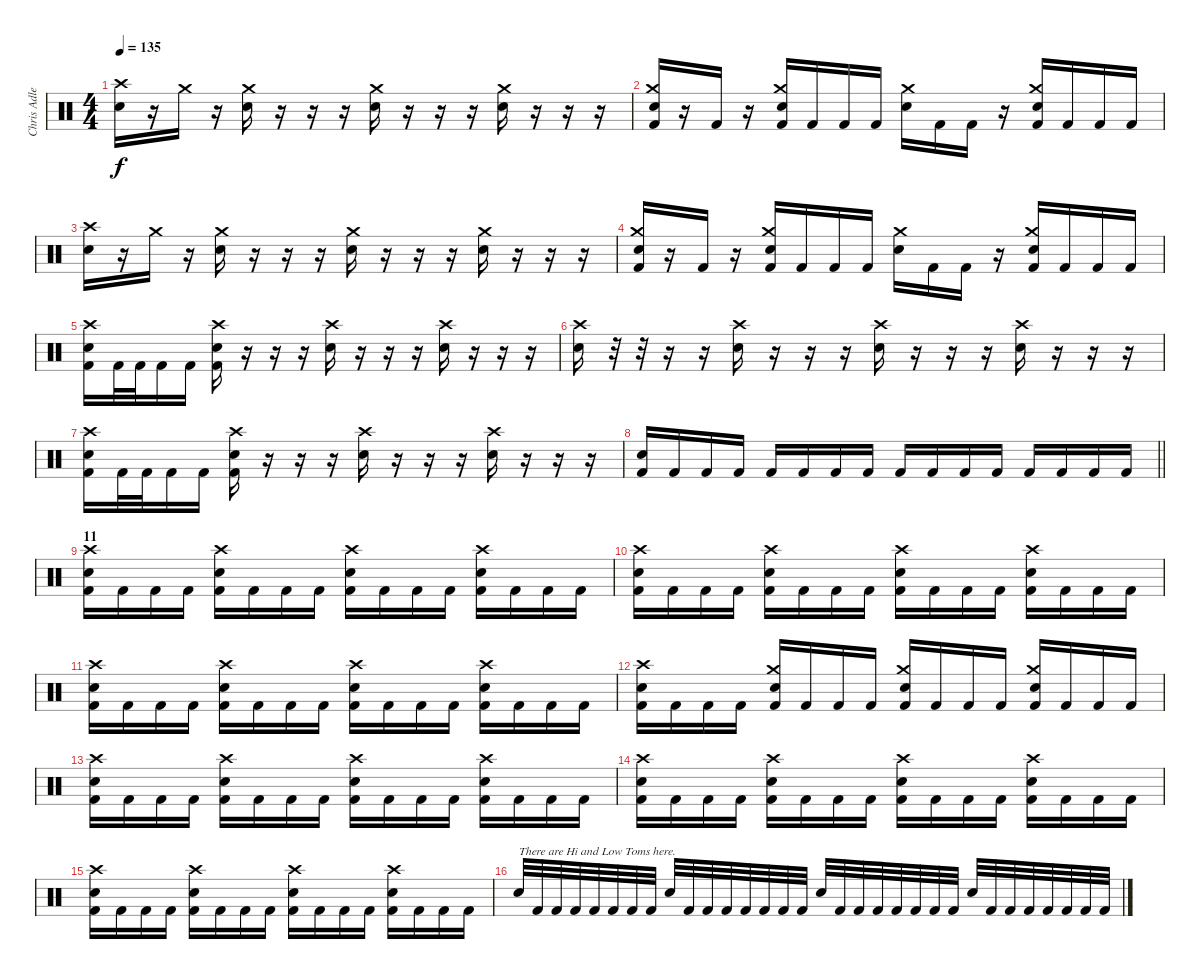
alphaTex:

\track ("Chris Adler" "Chris Adle") {instrument percussion}
\staff {score}
\articulation defaults
\ts (4 4)
\tempo 135
\clef neutral
\ks c
("Crash high (hit)" "Electric Snare (hit)").16{dy f} r.16 "Crash medium (hit)".16 r.16 ("Crash medium (hit)" "Electric Snare (hit)").16 r.16 r.16 r.16 ("Crash medium (hit)" "Electric Snare (hit)").16 r.16 r.16 r.16 ("Crash medium (hit)" "Electric Snare (hit)").16 r.16 r.16 r.16 |
("Crash medium (hit)" "Electric Snare (hit)" "Kick (hit) 2").16 r.16 "Kick (hit) 2".16 r.16 ("Crash medium (hit)" "Electric Snare (hit)" "Kick (hit) 2").16 "Kick (hit) 2".16 "Kick (hit) 2".16 "Kick (hit) 2".16 ("Crash medium (hit)" "Electric Snare (hit)").16 "Kick (hit) 2".16 "Kick (hit) 2".16 r.16 ("Crash medium (hit)" "Electric Snare (hit)" "Kick (hit) 2").16 "Kick (hit) 2".16 "Kick (hit) 2".16 "Kick (hit) 2".16 |
("Crash high (hit)" "Electric Snare (hit)").16 r.16 "Crash medium (hit)".16 r.16 ("Crash medium (hit)" "Electric Snare (hit)").16 r.16 r.16 r.16 ("Crash medium (hit)" "Electric Snare (hit)").16 r.16 r.16 r.16 ("Crash medium (hit)" "Electric Snare (hit)").16 r.16 r.16 r.16 |
("Crash medium (hit)" "Electric Snare (hit)" "Kick (hit) 2").16 r.16 "Kick (hit) 2".16 r.16 ("Crash medium (hit)" "Electric Snare (hit)" "Kick (hit) 2").16 "Kick (hit) 2".16 "Kick (hit) 2".16 "Kick (hit) 2".16 ("Crash medium (hit)" "Electric Snare (hit)").16 "Kick (hit) 2".16 "Kick (hit) 2".16 r.16 ("Crash medium (hit)" "Electric Snare (hit)" "Kick (hit) 2").16 "Kick (hit) 2".16 "Kick (hit) 2".16 "Kick (hit) 2".16 |
("Crash high (hit)" "Electric Snare (hit)" "Kick (hit) 2").16 "Kick (hit) 2".32 "Kick (hit) 2".32 "Kick (hit) 2".16 "Kick (hit) 2".16 ("Crash high (hit)" "Electric Snare (hit)" "Kick (hit) 2").16 r.16 r.16 r.16 ("Crash high (hit)" "Electric Snare (hit)").16 r.16 r.16 r.16 ("Crash high (hit)" "Electric Snare (hit)").16 r.16 r.16 r.16 |
("Crash high (hit)" "Electric Snare (hit)").16 r.32 r.32 r.16 r.16 ("Crash high (hit)" "Electric Snare (hit)").16 r.16 r.16 r.16 ("Crash high (hit)" "Electric Snare (hit)").16 r.16 r.16 r.16 ("Crash high (hit)" "Electric Snare (hit)").16 r.16 r.16 r.16 |
("Crash high (hit)" "Electric Snare (hit)" "Kick (hit) 2").16 "Kick (hit) 2".32 "Kick (hit) 2".32 "Kick (hit) 2".16 "Kick (hit) 2".16 ("Crash high (hit)" "Electric Snare (hit)" "Kick (hit) 2").16 r.16 r.16 r.16 ("Crash high (hit)" "Electric Snare (hit)").16 r.16 r.16 r.16 ("Crash high (hit)" "Electric Snare (hit)").16 r.16 r.16 r.16 |
\barLineRight lightlight
("Electric Snare (hit)" "Kick (hit) 2").16 "Kick (hit) 2".16 "Kick (hit) 2".16 "Kick (hit) 2".16 "Kick (hit) 2".16 "Kick (hit) 2".16 "Kick (hit) 2".16 "Kick (hit) 2".16 "Kick (hit) 2".16 "Kick (hit) 2".16 "Kick (hit) 2".16 "Kick (hit) 2".16 "Kick (hit) 2".16 "Kick (hit) 2".16 "Kick (hit) 2".16 "Kick (hit) 2".16 |
\section ("" "11")
("Crash high (hit)" "Electric Snare (hit)" "Kick (hit) 2").16 "Kick (hit) 2".16 "Kick (hit) 2".16 "Kick (hit) 2".16 ("Crash high (hit)" "Electric Snare (hit)" "Kick (hit) 2").16 "Kick (hit) 2".16 "Kick (hit) 2".16 "Kick (hit) 2".16 ("Crash high (hit)" "Electric Snare (hit)" "Kick (hit) 2").16 "Kick (hit) 2".16 "Kick (hit) 2".16 "Kick (hit) 2".16 ("Crash high (hit)" "Electric Snare (hit)" "Kick (hit) 2").16 "Kick (hit) 2".16 "Kick (hit) 2".16 "Kick (hit) 2".16 |
("Crash high (hit)" "Electric Snare (hit)" "Kick (hit) 2").16 "Kick (hit) 2".16 "Kick (hit) 2".16 "Kick (hit) 2".16 ("Crash high (hit)" "Electric Snare (hit)" "Kick (hit) 2").16 "Kick (hit) 2".16 "Kick (hit) 2".16 "Kick (hit) 2".16 ("Crash high (hit)" "Electric Snare (hit)" "Kick (hit) 2").16 "Kick (hit) 2".16 "Kick (hit) 2".16 "Kick (hit) 2".16 ("Crash high (hit)" "Electric Snare (hit)" "Kick (hit) 2").16 "Kick (hit) 2".16 "Kick (hit) 2".16 "Kick (hit) 2".16 |
("Crash high (hit)" "Electric Snare (hit)" "Kick (hit) 2").16 "Kick (hit) 2".16 "Kick (hit) 2".16 "Kick (hit) 2".16 ("Crash high (hit)" "Electric Snare (hit)" "Kick (hit) 2").16 "Kick (hit) 2".16 "Kick (hit) 2".16 "Kick (hit) 2".16 ("Crash high (hit)" "Electric Snare (hit)" "Kick (hit) 2").16 "Kick (hit) 2".16 "Kick (hit) 2".16 "Kick (hit) 2".16 ("Crash high (hit)" "Electric Snare (hit)" "Kick (hit) 2").16 "Kick (hit) 2".16 "Kick (hit) 2".16 "Kick (hit) 2".16 |
("Crash high (hit)" "Electric Snare (hit)" "Kick (hit) 2").16 "Kick (hit) 2".16 "Kick (hit) 2".16 "Kick (hit) 2".16 ("Crash medium (hit)" "Electric Snare (hit)" "Kick (hit) 2").16 "Kick (hit) 2".16 "Kick (hit) 2".16 "Kick (hit) 2".16 ("Crash medium (hit)" "Electric Snare (hit)" "Kick (hit) 2").16 "Kick (hit) 2".16 "Kick (hit) 2".16 "Kick (hit) 2".16 ("Crash medium (hit)" "Electric Snare (hit)" "Kick (hit) 2").16 "Kick (hit) 2".16 "Kick (hit) 2".16 "Kick (hit) 2".16 |
("Crash high (hit)" "Electric Snare (hit)" "Kick (hit) 2").16 "Kick (hit) 2".16 "Kick (hit) 2".16 "Kick (hit) 2".16 ("Crash high (hit)" "Electric Snare (hit)" "Kick (hit) 2").16 "Kick (hit) 2".16 "Kick (hit) 2".16 "Kick (hit) 2".16 ("Crash high (hit)" "Electric Snare (hit)" "Kick (hit) 2").16 "Kick (hit) 2".16 "Kick (hit) 2".16 "Kick (hit) 2".16 ("Crash high (hit)" "Electric Snare (hit)" "Kick (hit) 2").16 "Kick (hit) 2".16 "Kick (hit) 2".16 "Kick (hit) 2".16 |
("Crash high (hit)" "Electric Snare (hit)" "Kick (hit) 2").16 "Kick (hit) 2".16 "Kick (hit) 2".16 "Kick (hit) 2".16 ("Crash high (hit)" "Electric Snare (hit)" "Kick (hit) 2").16 "Kick (hit) 2".16 "Kick (hit) 2".16 "Kick (hit) 2".16 ("Crash high (hit)" "Electric Snare (hit)" "Kick (hit) 2").16 "Kick (hit) 2".16 "Kick (hit) 2".16 "Kick (hit) 2".16 ("Crash high (hit)" "Electric Snare (hit)" "Kick (hit) 2").16 "Kick (hit) 2".16 "Kick (hit) 2".16 "Kick (hit) 2".16 |
("Crash high (hit)" "Electric Snare (hit)" "Kick (hit) 2").16 "Kick (hit) 2".16 "Kick (hit) 2".16 "Kick (hit) 2".16 ("Crash high (hit)" "Electric Snare (hit)" "Kick (hit) 2").16 "Kick (hit) 2".16 "Kick (hit) 2".16 "Kick (hit) 2".16 ("Crash high (hit)" "Electric Snare (hit)" "Kick (hit) 2").16 "Kick (hit) 2".16 "Kick (hit) 2".16 "Kick (hit) 2".16 ("Crash high (hit)" "Electric Snare (hit)" "Kick (hit) 2").16 "Kick (hit) 2".16 "Kick (hit) 2".16 "Kick (hit) 2".16 |
"Electric Snare (hit)".32{txt "There are Hi and Low Toms here."} "Kick (hit) 2".32 "Kick (hit) 2".32 "Kick (hit) 2".32 "Kick (hit) 2".32 "Kick (hit) 2".32 "Kick (hit) 2".32 "Kick (hit) 2".32 "Electric Snare (hit)".32 "Kick (hit) 2".32 "Kick (hit) 2".32 "Kick (hit) 2".32 "Kick (hit) 2".32 "Kick (hit) 2".32 "Kick (hit) 2".32 "Kick (hit) 2".32 "Electric Snare (hit)".32 "Kick (hit) 2".32 "Kick (hit) 2".32 "Kick (hit) 2".32 "Kick (hit) 2".32 "Kick (hit) 2".32 "Kick (hit) 2".32 "Kick (hit) 2".32 "Electric Snare (hit)".32 "Kick (hit) 2".32 "Kick (hit) 2".32 "Kick (hit) 2".32 "Kick (hit) 2".32 "Kick (hit) 2".32 "Kick (hit) 2".32 "Kick (hit) 2".32
